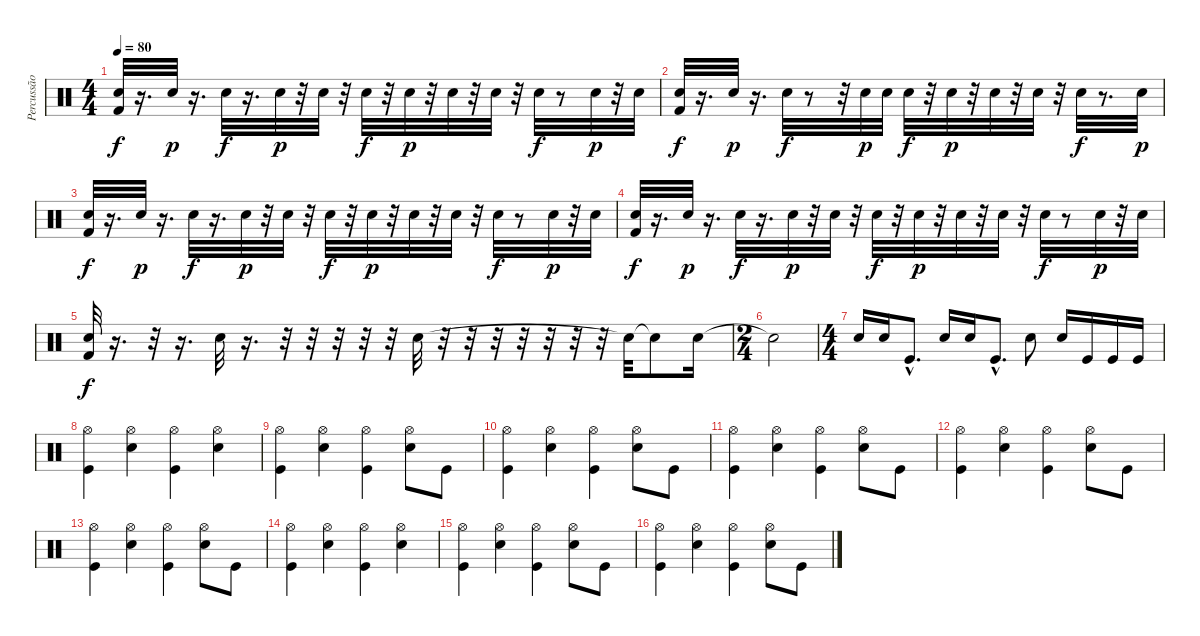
\track ("Percussão" "Percussão") {instrument percussion}
\staff {score}
\articulation defaults
\ts (4 4)
\tempo 80
\clef neutral
\ks c
("Snare (hit) 2" "Kick (hit) 2").32{dy f} r.16{d} "Snare (hit) 2".32{dy p} r.16{d} "Snare (hit) 2".32{dy f} r.16{d} "Snare (hit) 2".32{dy p} r.32 "Snare (hit) 2".32 r.32 "Snare (hit) 2".32{dy f} r.32 "Snare (hit) 2".32{dy p} r.32 "Snare (hit) 2".32 r.32 "Snare (hit) 2".32 r.32 "Snare (hit) 2".32{dy f} r.8 "Snare (hit) 2".32{dy p} r.32 "Snare (hit) 2".32 |
("Snare (hit) 2" "Kick (hit) 2").32{dy f} r.16{d} "Snare (hit) 2".32{dy p} r.16{d} "Snare (hit) 2".32{dy f} r.8 r.32 "Snare (hit) 2".32{dy p} "Snare (hit) 2".32 "Snare (hit) 2".32{dy f} r.32 "Snare (hit) 2".32{dy p} r.32 "Snare (hit) 2".32 r.32 "Snare (hit) 2".32 r.32 "Snare (hit) 2".32{dy f} r.8{d} "Snare (hit) 2".32{dy p} |
("Snare (hit) 2" "Kick (hit) 2").32{dy f} r.16{d} "Snare (hit) 2".32{dy p} r.16{d} "Snare (hit) 2".32{dy f} r.16{d} "Snare (hit) 2".32{dy p} r.32 "Snare (hit) 2".32 r.32 "Snare (hit) 2".32{dy f} r.32 "Snare (hit) 2".32{dy p} r.32 "Snare (hit) 2".32 r.32 "Snare (hit) 2".32 r.32 "Snare (hit) 2".32{dy f} r.8 "Snare (hit) 2".32{dy p} r.32 "Snare (hit) 2".32 |
("Snare (hit) 2" "Kick (hit) 2").32{dy f} r.16{d} "Snare (hit) 2".32{dy p} r.16{d} "Snare (hit) 2".32{dy f} r.16{d} "Snare (hit) 2".32{dy p} r.32 "Snare (hit) 2".32 r.32 "Snare (hit) 2".32{dy f} r.32 "Snare (hit) 2".32{dy p} r.32 "Snare (hit) 2".32 r.32 "Snare (hit) 2".32 r.32 "Snare (hit) 2".32{dy f} r.8 "Snare (hit) 2".32{dy p} r.32 "Snare (hit) 2".32 |
("Snare (hit) 2" "Kick (hit) 2").32{dy f} r.16{d} r.32 r.16{d} "Snare (hit) 2".32 r.16{d} r.32 r.32 r.32 r.32 r.32 "Snare (hit) 2".32 r.32 r.32 r.32 r.32 r.32 r.32 r.32 "Snare (hit)"{t}.32 "Snare (hit) 2"{t}.8 "Snare (hit) 2".16 |
\ts (2 4)
"Snare (hit)"{t}.2 |
\ts (4 4)
"Electric Snare (hit)".16 "Electric Snare (hit)".16 "Kick (hit)"{hac}.8{d} "Electric Snare (hit)".16 "Electric Snare (hit)".16 "Kick (hit)"{hac}.8{d} "Electric Snare (hit)".8 "Electric Snare (hit)".16 "Kick (hit)".16 "Kick (hit)".16 "Kick (hit)".16 |
("Hi-Hat (open)" "Kick (hit)").4 ("Hi-Hat (open)" "Electric Snare (hit)").4 ("Hi-Hat (open)" "Kick (hit)").4 ("Hi-Hat (open)" "Electric Snare (hit)").4 |
("Hi-Hat (open)" "Kick (hit)").4 ("Hi-Hat (open)" "Electric Snare (hit)").4 ("Hi-Hat (open)" "Kick (hit)").4 ("Hi-Hat (open)" "Electric Snare (hit)").8 "Kick (hit)".8 |
("Hi-Hat (open)" "Kick (hit)").4 ("Hi-Hat (open)" "Electric Snare (hit)").4 ("Hi-Hat (open)" "Kick (hit)").4 ("Hi-Hat (open)" "Electric Snare (hit)").8 "Kick (hit)".8 |
("Hi-Hat (open)" "Kick (hit)").4 ("Hi-Hat (open)" "Electric Snare (hit)").4 ("Hi-Hat (open)" "Kick (hit)").4 ("Hi-Hat (open)" "Electric Snare (hit)").8 "Kick (hit)".8 |
("Hi-Hat (open)" "Kick (hit)").4 ("Hi-Hat (open)" "Electric Snare (hit)").4 ("Hi-Hat (open)" "Kick (hit)").4 ("Hi-Hat (open)" "Electric Snare (hit)").8 "Kick (hit)".8 |
("Hi-Hat (open)" "Kick (hit)").4 ("Hi-Hat (open)" "Electric Snare (hit)").4 ("Hi-Hat (open)" "Kick (hit)").4 ("Hi-Hat (open)" "Electric Snare (hit)").8 "Kick (hit)".8 |
("Hi-Hat (open)" "Kick (hit)").4 ("Hi-Hat (open)" "Electric Snare (hit)").4 ("Hi-Hat (open)" "Kick (hit)").4 ("Hi-Hat (open)" "Electric Snare (hit)").4 |
("Hi-Hat (open)" "Kick (hit)").4 ("Hi-Hat (open)" "Electric Snare (hit)").4 ("Hi-Hat (open)" "Kick (hit)").4 ("Hi-Hat (open)" "Electric Snare (hit)").8 "Kick (hit)".8 |
("Hi-Hat (open)" "Kick (hit)").4 ("Hi-Hat (open)" "Electric Snare (hit)").4 ("Hi-Hat (open)" "Kick (hit)").4 ("Hi-Hat (open)" "Electric Snare (hit)").8 "Kick (hit)".8
